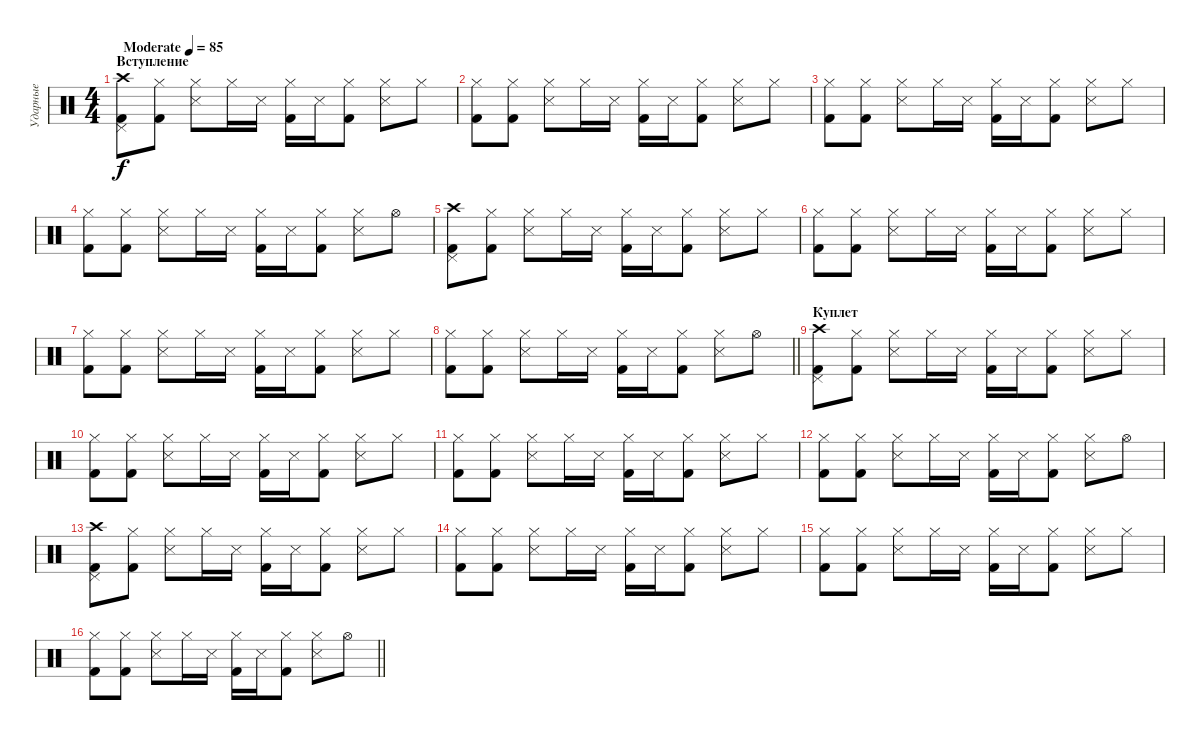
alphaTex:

\track ("Ударные" "Ударные") {instrument percussion}
\staff {score}
\articulation defaults
\ts (4 4)
\section ("" "Вступление")
\tempo (85 "Moderate")
\clef neutral
\ks c
("Crash high (hit)" "Pedal Hi-Hat (hit)" "Kick (hit) 2").8{dy f} ("Hi-Hat (closed)" "Kick (hit) 2").8 ("Hi-Hat (closed)" "Snare (side stick) 3").8 "Hi-Hat (closed)".16 "Snare (side stick) 3".16 ("Hi-Hat (closed)" "Kick (hit) 2").16 "Snare (side stick) 3".16 ("Hi-Hat (closed)" "Kick (hit) 2").8 ("Hi-Hat (closed)" "Snare (side stick) 3").8 "Hi-Hat (closed)".8 |
("Hi-Hat (closed)" "Kick (hit) 2").8 ("Hi-Hat (closed)" "Kick (hit) 2").8 ("Hi-Hat (closed)" "Snare (side stick) 3").8 "Hi-Hat (closed)".16 "Snare (side stick) 3".16 ("Hi-Hat (closed)" "Kick (hit) 2").16 "Snare (side stick) 3".16 ("Hi-Hat (closed)" "Kick (hit) 2").8 ("Hi-Hat (closed)" "Snare (side stick) 3").8 "Hi-Hat (closed)".8 |
("Hi-Hat (closed)" "Kick (hit) 2").8 ("Hi-Hat (closed)" "Kick (hit) 2").8 ("Hi-Hat (closed)" "Snare (side stick) 3").8 "Hi-Hat (closed)".16 "Snare (side stick) 3".16 ("Hi-Hat (closed)" "Kick (hit) 2").16 "Snare (side stick) 3".16 ("Hi-Hat (closed)" "Kick (hit) 2").8 ("Hi-Hat (closed)" "Snare (side stick) 3").8 "Hi-Hat (closed)".8 |
("Hi-Hat (closed)" "Kick (hit) 2").8 ("Hi-Hat (closed)" "Kick (hit) 2").8 ("Hi-Hat (closed)" "Snare (side stick) 3").8 "Hi-Hat (closed)".16 "Snare (side stick) 3".16 ("Hi-Hat (closed)" "Kick (hit) 2").16 "Snare (side stick) 3".16 ("Hi-Hat (closed)" "Kick (hit) 2").8 ("Hi-Hat (closed)" "Snare (side stick) 3").8 "Hi-Hat (open)".8 |
("Crash high (hit)" "Pedal Hi-Hat (hit)" "Kick (hit) 2").8 ("Hi-Hat (closed)" "Kick (hit) 2").8 ("Hi-Hat (closed)" "Snare (side stick) 3").8 "Hi-Hat (closed)".16 "Snare (side stick) 3".16 ("Hi-Hat (closed)" "Kick (hit) 2").16 "Snare (side stick) 3".16 ("Hi-Hat (closed)" "Kick (hit) 2").8 ("Hi-Hat (closed)" "Snare (side stick) 3").8 "Hi-Hat (closed)".8 |
("Hi-Hat (closed)" "Kick (hit) 2").8 ("Hi-Hat (closed)" "Kick (hit) 2").8 ("Hi-Hat (closed)" "Snare (side stick) 3").8 "Hi-Hat (closed)".16 "Snare (side stick) 3".16 ("Hi-Hat (closed)" "Kick (hit) 2").16 "Snare (side stick) 3".16 ("Hi-Hat (closed)" "Kick (hit) 2").8 ("Hi-Hat (closed)" "Snare (side stick) 3").8 "Hi-Hat (closed)".8 |
("Hi-Hat (closed)" "Kick (hit) 2").8 ("Hi-Hat (closed)" "Kick (hit) 2").8 ("Hi-Hat (closed)" "Snare (side stick) 3").8 "Hi-Hat (closed)".16 "Snare (side stick) 3".16 ("Hi-Hat (closed)" "Kick (hit) 2").16 "Snare (side stick) 3".16 ("Hi-Hat (closed)" "Kick (hit) 2").8 ("Hi-Hat (closed)" "Snare (side stick) 3").8 "Hi-Hat (closed)".8 |
\barLineRight lightlight
("Hi-Hat (closed)" "Kick (hit) 2").8 ("Hi-Hat (closed)" "Kick (hit) 2").8 ("Hi-Hat (closed)" "Snare (side stick) 3").8 "Hi-Hat (closed)".16 "Snare (side stick) 3".16 ("Hi-Hat (closed)" "Kick (hit) 2").16 "Snare (side stick) 3".16 ("Hi-Hat (closed)" "Kick (hit) 2").8 ("Hi-Hat (closed)" "Snare (side stick) 3").8 "Hi-Hat (open)".8 |
\section ("" "Куплет")
("Crash high (hit)" "Pedal Hi-Hat (hit)" "Kick (hit) 2").8 ("Hi-Hat (closed)" "Kick (hit) 2").8 ("Hi-Hat (closed)" "Snare (side stick) 3").8 "Hi-Hat (closed)".16 "Snare (side stick) 3".16 ("Hi-Hat (closed)" "Kick (hit) 2").16 "Snare (side stick) 3".16 ("Hi-Hat (closed)" "Kick (hit) 2").8 ("Hi-Hat (closed)" "Snare (side stick) 3").8 "Hi-Hat (closed)".8 |
("Hi-Hat (closed)" "Kick (hit) 2").8 ("Hi-Hat (closed)" "Kick (hit) 2").8 ("Hi-Hat (closed)" "Snare (side stick) 3").8 "Hi-Hat (closed)".16 "Snare (side stick) 3".16 ("Hi-Hat (closed)" "Kick (hit) 2").16 "Snare (side stick) 3".16 ("Hi-Hat (closed)" "Kick (hit) 2").8 ("Hi-Hat (closed)" "Snare (side stick) 3").8 "Hi-Hat (closed)".8 |
("Hi-Hat (closed)" "Kick (hit) 2").8 ("Hi-Hat (closed)" "Kick (hit) 2").8 ("Hi-Hat (closed)" "Snare (side stick) 3").8 "Hi-Hat (closed)".16 "Snare (side stick) 3".16 ("Hi-Hat (closed)" "Kick (hit) 2").16 "Snare (side stick) 3".16 ("Hi-Hat (closed)" "Kick (hit) 2").8 ("Hi-Hat (closed)" "Snare (side stick) 3").8 "Hi-Hat (closed)".8 |
("Hi-Hat (closed)" "Kick (hit) 2").8 ("Hi-Hat (closed)" "Kick (hit) 2").8 ("Hi-Hat (closed)" "Snare (side stick) 3").8 "Hi-Hat (closed)".16 "Snare (side stick) 3".16 ("Hi-Hat (closed)" "Kick (hit) 2").16 "Snare (side stick) 3".16 ("Hi-Hat (closed)" "Kick (hit) 2").8 ("Hi-Hat (closed)" "Snare (side stick) 3").8 "Hi-Hat (open)".8 |
("Crash high (hit)" "Pedal Hi-Hat (hit)" "Kick (hit) 2").8 ("Hi-Hat (closed)" "Kick (hit) 2").8 ("Hi-Hat (closed)" "Snare (side stick) 3").8 "Hi-Hat (closed)".16 "Snare (side stick) 3".16 ("Hi-Hat (closed)" "Kick (hit) 2").16 "Snare (side stick) 3".16 ("Hi-Hat (closed)" "Kick (hit) 2").8 ("Hi-Hat (closed)" "Snare (side stick) 3").8 "Hi-Hat (closed)".8 |
("Hi-Hat (closed)" "Kick (hit) 2").8 ("Hi-Hat (closed)" "Kick (hit) 2").8 ("Hi-Hat (closed)" "Snare (side stick) 3").8 "Hi-Hat (closed)".16 "Snare (side stick) 3".16 ("Hi-Hat (closed)" "Kick (hit) 2").16 "Snare (side stick) 3".16 ("Hi-Hat (closed)" "Kick (hit) 2").8 ("Hi-Hat (closed)" "Snare (side stick) 3").8 "Hi-Hat (closed)".8 |
("Hi-Hat (closed)" "Kick (hit) 2").8 ("Hi-Hat (closed)" "Kick (hit) 2").8 ("Hi-Hat (closed)" "Snare (side stick) 3").8 "Hi-Hat (closed)".16 "Snare (side stick) 3".16 ("Hi-Hat (closed)" "Kick (hit) 2").16 "Snare (side stick) 3".16 ("Hi-Hat (closed)" "Kick (hit) 2").8 ("Hi-Hat (closed)" "Snare (side stick) 3").8 "Hi-Hat (closed)".8 |
\barLineRight lightlight
("Hi-Hat (closed)" "Kick (hit) 2").8 ("Hi-Hat (closed)" "Kick (hit) 2").8 ("Hi-Hat (closed)" "Snare (side stick) 3").8 "Hi-Hat (closed)".16 "Snare (side stick) 3".16 ("Hi-Hat (closed)" "Kick (hit) 2").16 "Snare (side stick) 3".16 ("Hi-Hat (closed)" "Kick (hit) 2").8 ("Hi-Hat (closed)" "Snare (side stick) 3").8 "Hi-Hat (open)".8
